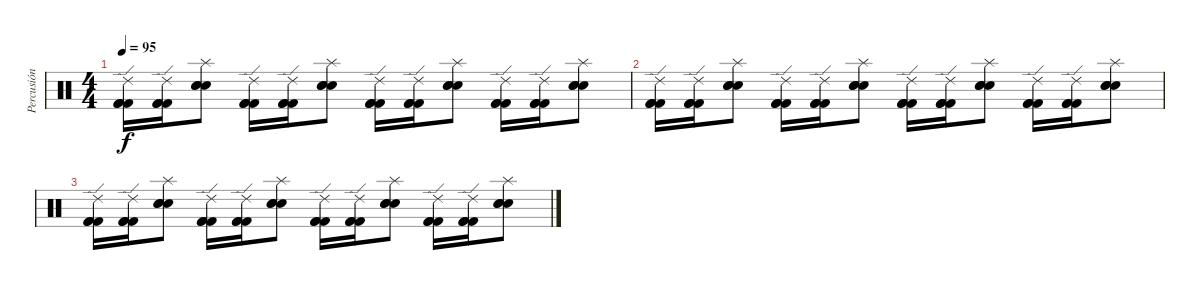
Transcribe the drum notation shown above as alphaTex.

\track ("Percusión" "Percusión") {instrument percussion}
\staff {score}
\articulation defaults
\ts (4 4)
\tempo 95
\clef neutral
\ks c
("Kick (hit) 2" "Ride (edge) 2" "Kick (hit) 2" "Kick (hit) 2").16{dy f} ("Kick (hit) 2" "Ride (edge) 2" "Kick (hit) 2" "Kick (hit) 2").16 ("Electric Snare (hit)" "Splash (hit)" "Electric Snare (hit)" "Electric Snare (hit)").8 ("Kick (hit) 2" "Ride (edge) 2" "Kick (hit) 2" "Kick (hit) 2").16 ("Kick (hit) 2" "Ride (edge) 2" "Kick (hit) 2" "Kick (hit) 2").16 ("Electric Snare (hit)" "Splash (hit)" "Electric Snare (hit)" "Electric Snare (hit)").8 ("Kick (hit) 2" "Ride (edge) 2" "Kick (hit) 2" "Kick (hit) 2").16 ("Kick (hit) 2" "Ride (edge) 2" "Kick (hit) 2" "Kick (hit) 2").16 ("Electric Snare (hit)" "Splash (hit)" "Electric Snare (hit)" "Electric Snare (hit)").8 ("Kick (hit) 2" "Ride (edge) 2" "Kick (hit) 2" "Kick (hit) 2").16 ("Kick (hit) 2" "Ride (edge) 2" "Kick (hit) 2" "Kick (hit) 2").16 ("Electric Snare (hit)" "Splash (hit)" "Electric Snare (hit)" "Electric Snare (hit)").8 |
("Kick (hit) 2" "Ride (edge) 2" "Kick (hit) 2" "Kick (hit) 2").16 ("Kick (hit) 2" "Ride (edge) 2" "Kick (hit) 2" "Kick (hit) 2").16 ("Electric Snare (hit)" "Splash (hit)" "Electric Snare (hit)" "Electric Snare (hit)").8 ("Kick (hit) 2" "Ride (edge) 2" "Kick (hit) 2" "Kick (hit) 2").16 ("Kick (hit) 2" "Ride (edge) 2" "Kick (hit) 2" "Kick (hit) 2").16 ("Electric Snare (hit)" "Splash (hit)" "Electric Snare (hit)" "Electric Snare (hit)").8 ("Kick (hit) 2" "Ride (edge) 2" "Kick (hit) 2" "Kick (hit) 2").16 ("Kick (hit) 2" "Ride (edge) 2" "Kick (hit) 2" "Kick (hit) 2").16 ("Electric Snare (hit)" "Splash (hit)" "Electric Snare (hit)" "Electric Snare (hit)").8 ("Kick (hit) 2" "Ride (edge) 2" "Kick (hit) 2" "Kick (hit) 2").16 ("Kick (hit) 2" "Ride (edge) 2" "Kick (hit) 2" "Kick (hit) 2").16 ("Electric Snare (hit)" "Splash (hit)" "Electric Snare (hit)" "Electric Snare (hit)").8 |
("Kick (hit) 2" "Ride (edge) 2" "Kick (hit) 2" "Kick (hit) 2").16 ("Kick (hit) 2" "Ride (edge) 2" "Kick (hit) 2" "Kick (hit) 2").16 ("Electric Snare (hit)" "Splash (hit)" "Electric Snare (hit)" "Electric Snare (hit)").8 ("Kick (hit) 2" "Ride (edge) 2" "Kick (hit) 2" "Kick (hit) 2").16 ("Kick (hit) 2" "Ride (edge) 2" "Kick (hit) 2" "Kick (hit) 2").16 ("Electric Snare (hit)" "Splash (hit)" "Electric Snare (hit)" "Electric Snare (hit)").8 ("Kick (hit) 2" "Ride (edge) 2" "Kick (hit) 2" "Kick (hit) 2").16 ("Kick (hit) 2" "Ride (edge) 2" "Kick (hit) 2" "Kick (hit) 2").16 ("Electric Snare (hit)" "Splash (hit)" "Electric Snare (hit)" "Electric Snare (hit)").8 ("Kick (hit) 2" "Ride (edge) 2" "Kick (hit) 2" "Kick (hit) 2").16 ("Kick (hit) 2" "Ride (edge) 2" "Kick (hit) 2" "Kick (hit) 2").16 ("Electric Snare (hit)" "Splash (hit)" "Electric Snare (hit)" "Electric Snare (hit)").8
